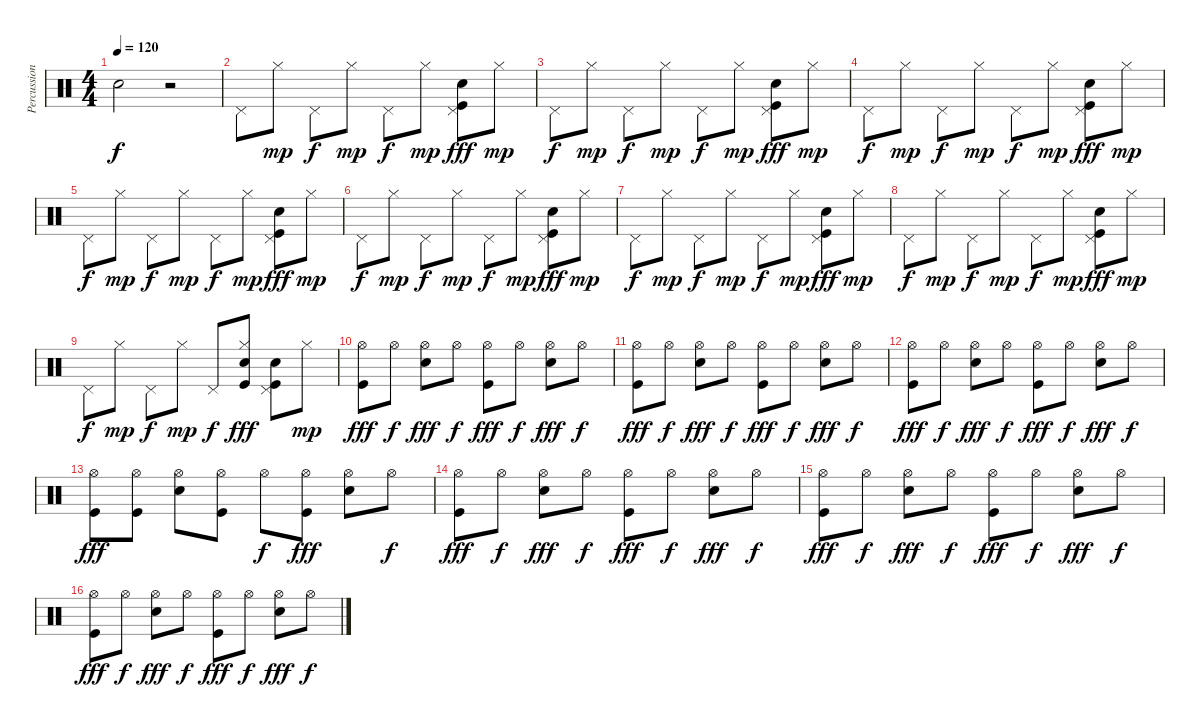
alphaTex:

\track ("Percussion" "Percussion") {solo instrument percussion}
\staff {score}
\articulation defaults
\ts (4 4)
\tempo 120
\clef neutral
\ks c "Snare (hit)"{t}.2{dy f}
r.2 |
"Pedal Hi-Hat (hit)".8 "Hi-Hat (closed)".8{dy mp} "Pedal Hi-Hat (hit)".8{dy f} "Hi-Hat (closed)".8{dy mp} "Pedal Hi-Hat (hit)".8{dy f} "Hi-Hat (closed)".8{dy mp} ("Pedal Hi-Hat (hit)" "Snare (hit) 2" "Kick (hit)").8{dy fff} "Hi-Hat (closed)".8{dy mp} |
"Pedal Hi-Hat (hit)".8{dy f} "Hi-Hat (closed)".8{dy mp} "Pedal Hi-Hat (hit)".8{dy f} "Hi-Hat (closed)".8{dy mp} "Pedal Hi-Hat (hit)".8{dy f} "Hi-Hat (closed)".8{dy mp} ("Pedal Hi-Hat (hit)" "Snare (hit) 2" "Kick (hit)").8{dy fff} "Hi-Hat (closed)".8{dy mp} |
"Pedal Hi-Hat (hit)".8{dy f} "Hi-Hat (closed)".8{dy mp} "Pedal Hi-Hat (hit)".8{dy f} "Hi-Hat (closed)".8{dy mp} "Pedal Hi-Hat (hit)".8{dy f} "Hi-Hat (closed)".8{dy mp} ("Pedal Hi-Hat (hit)" "Snare (hit) 2" "Kick (hit)").8{dy fff} "Hi-Hat (closed)".8{dy mp} |
"Pedal Hi-Hat (hit)".8{dy f} "Hi-Hat (closed)".8{dy mp} "Pedal Hi-Hat (hit)".8{dy f} "Hi-Hat (closed)".8{dy mp} "Pedal Hi-Hat (hit)".8{dy f} "Hi-Hat (closed)".8{dy mp} ("Pedal Hi-Hat (hit)" "Snare (hit) 2" "Kick (hit)").8{dy fff} "Hi-Hat (closed)".8{dy mp} |
"Pedal Hi-Hat (hit)".8{dy f} "Hi-Hat (closed)".8{dy mp} "Pedal Hi-Hat (hit)".8{dy f} "Hi-Hat (closed)".8{dy mp} "Pedal Hi-Hat (hit)".8{dy f} "Hi-Hat (closed)".8{dy mp} ("Pedal Hi-Hat (hit)" "Snare (hit) 2" "Kick (hit)").8{dy fff} "Hi-Hat (closed)".8{dy mp} |
"Pedal Hi-Hat (hit)".8{dy f} "Hi-Hat (closed)".8{dy mp} "Pedal Hi-Hat (hit)".8{dy f} "Hi-Hat (closed)".8{dy mp} "Pedal Hi-Hat (hit)".8{dy f} "Hi-Hat (closed)".8{dy mp} ("Pedal Hi-Hat (hit)" "Snare (hit) 2" "Kick (hit)").8{dy fff} "Hi-Hat (closed)".8{dy mp} |
"Pedal Hi-Hat (hit)".8{dy f} "Hi-Hat (closed)".8{dy mp} "Pedal Hi-Hat (hit)".8{dy f} "Hi-Hat (closed)".8{dy mp} "Pedal Hi-Hat (hit)".8{dy f} "Hi-Hat (closed)".8{dy mp} ("Pedal Hi-Hat (hit)" "Snare (hit) 2" "Kick (hit)").8{dy fff} "Hi-Hat (closed)".8{dy mp} |
"Pedal Hi-Hat (hit)".8{dy f} "Hi-Hat (closed)".8{dy mp} "Pedal Hi-Hat (hit)".8{dy f} "Hi-Hat (closed)".8{dy mp} "Pedal Hi-Hat (hit)".8{dy f} ("Hi-Hat (closed)" "Snare (hit) 2" "Kick (hit)").8{dy fff} ("Pedal Hi-Hat (hit)" "Snare (hit) 2" "Kick (hit)").8 "Hi-Hat (closed)".8{dy mp} |
("Hi-Hat (open)" "Kick (hit)").8{dy fff} "Hi-Hat (open)".8{dy f} ("Hi-Hat (open)" "Snare (hit) 2").8{dy fff} "Hi-Hat (open)".8{dy f} ("Hi-Hat (open)" "Kick (hit)").8{dy fff} "Hi-Hat (open)".8{dy f} ("Hi-Hat (open)" "Snare (hit) 2").8{dy fff} "Hi-Hat (open)".8{dy f} |
("Hi-Hat (open)" "Kick (hit)").8{dy fff} "Hi-Hat (open)".8{dy f} ("Hi-Hat (open)" "Snare (hit) 2").8{dy fff} "Hi-Hat (open)".8{dy f} ("Hi-Hat (open)" "Kick (hit)").8{dy fff} "Hi-Hat (open)".8{dy f} ("Hi-Hat (open)" "Snare (hit) 2").8{dy fff} "Hi-Hat (open)".8{dy f} |
("Hi-Hat (open)" "Kick (hit)").8{dy fff} "Hi-Hat (open)".8{dy f} ("Hi-Hat (open)" "Snare (hit) 2").8{dy fff} "Hi-Hat (open)".8{dy f} ("Hi-Hat (open)" "Kick (hit)").8{dy fff} "Hi-Hat (open)".8{dy f} ("Hi-Hat (open)" "Snare (hit) 2").8{dy fff} "Hi-Hat (open)".8{dy f} |
("Hi-Hat (open)" "Kick (hit)").8{dy fff} ("Hi-Hat (open)" "Kick (hit)").8 ("Hi-Hat (open)" "Snare (hit) 2").8 ("Hi-Hat (open)" "Kick (hit)").8 "Hi-Hat (open)".8{dy f} ("Hi-Hat (open)" "Kick (hit)").8{dy fff} ("Hi-Hat (open)" "Snare (hit) 2").8 "Hi-Hat (open)".8{dy f} |
("Hi-Hat (open)" "Kick (hit)").8{dy fff} "Hi-Hat (open)".8{dy f} ("Hi-Hat (open)" "Snare (hit) 2").8{dy fff} "Hi-Hat (open)".8{dy f} ("Hi-Hat (open)" "Kick (hit)").8{dy fff} "Hi-Hat (open)".8{dy f} ("Hi-Hat (open)" "Snare (hit) 2").8{dy fff} "Hi-Hat (open)".8{dy f} |
("Hi-Hat (open)" "Kick (hit)").8{dy fff} "Hi-Hat (open)".8{dy f} ("Hi-Hat (open)" "Snare (hit) 2").8{dy fff} "Hi-Hat (open)".8{dy f} ("Hi-Hat (open)" "Kick (hit)").8{dy fff} "Hi-Hat (open)".8{dy f} ("Hi-Hat (open)" "Snare (hit) 2").8{dy fff} "Hi-Hat (open)".8{dy f} |
("Hi-Hat (open)" "Kick (hit)").8{dy fff} "Hi-Hat (open)".8{dy f} ("Hi-Hat (open)" "Snare (hit) 2").8{dy fff} "Hi-Hat (open)".8{dy f} ("Hi-Hat (open)" "Kick (hit)").8{dy fff} "Hi-Hat (open)".8{dy f} ("Hi-Hat (open)" "Snare (hit) 2").8{dy fff} "Hi-Hat (open)".8{dy f}
